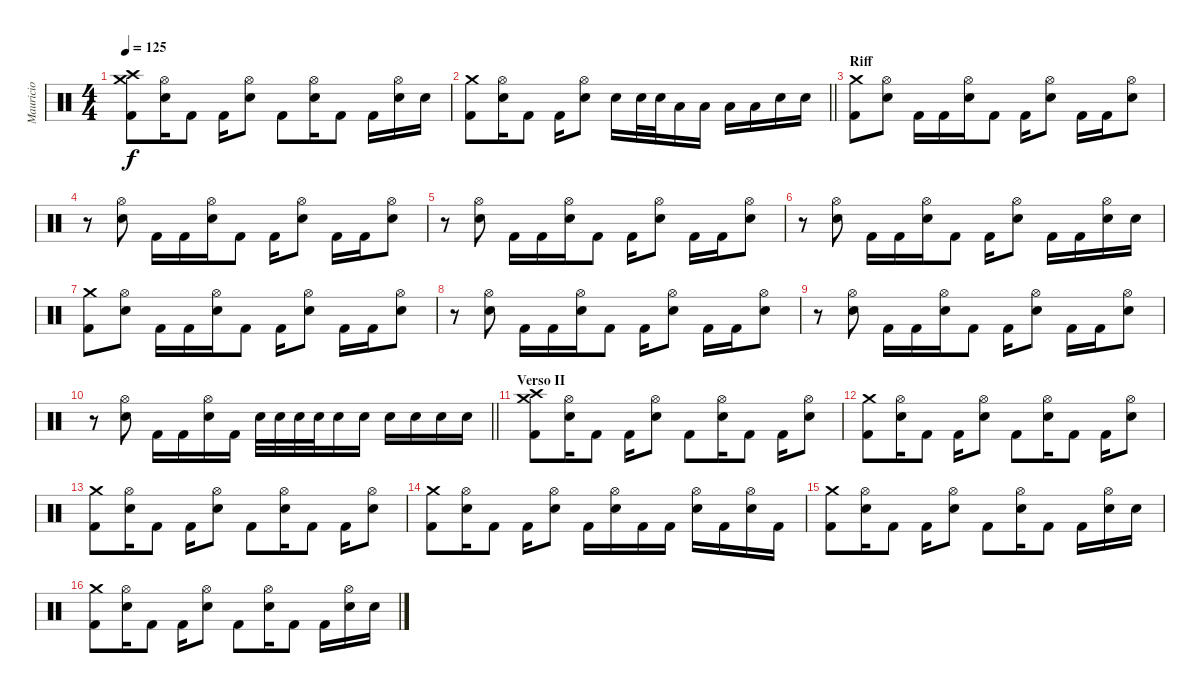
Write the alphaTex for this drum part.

\track ("Mauricio" "Mauricio") {instrument percussion}
\staff {score}
\articulation defaults
\ts (4 4)
\tempo 125
\clef neutral
\ks c
("Crash medium (hit)" "Crash high (hit)" "Kick (hit) 2").8{dy f} ("Hi-Hat (open)" "Electric Snare (hit)").16 "Kick (hit) 2".8 "Kick (hit) 2".16 ("Hi-Hat (open)" "Electric Snare (hit)").8 "Kick (hit) 2".8 ("Hi-Hat (open)" "Electric Snare (hit)").16 "Kick (hit) 2".8 "Kick (hit) 2".16 ("Hi-Hat (open)" "Electric Snare (hit)").16 "Electric Snare (hit)".16 |
\barLineRight lightlight
("Crash medium (hit)" "Kick (hit) 2").8 ("Hi-Hat (open)" "Electric Snare (hit)").16 "Kick (hit) 2".8 "Kick (hit) 2".16 ("Hi-Hat (open)" "Electric Snare (hit)").8 "Electric Snare (hit)".16 "Electric Snare (hit)".32 "Electric Snare (hit)".32 "Low Tom (hit)".16 "Low Tom (hit)".16 "Low Floor Tom (hit)".16 "Low Floor Tom (hit)".16 "Electric Snare (hit)".16 "Electric Snare (hit)".16 |
\section ("" "Riff")
("Crash medium (hit)" "Kick (hit) 2").8 ("Hi-Hat (open)" "Electric Snare (hit)").8 "Kick (hit) 2".16 "Kick (hit) 2".16 ("Hi-Hat (open)" "Electric Snare (hit)").16 "Kick (hit) 2".8 "Kick (hit) 2".16 ("Hi-Hat (open)" "Electric Snare (hit)").8 "Kick (hit) 2".16 "Kick (hit) 2".16 ("Hi-Hat (open)" "Electric Snare (hit)").8 |
r.8 ("Hi-Hat (open)" "Electric Snare (hit)").8 "Kick (hit) 2".16 "Kick (hit) 2".16 ("Hi-Hat (open)" "Electric Snare (hit)").16 "Kick (hit) 2".8 "Kick (hit) 2".16 ("Hi-Hat (open)" "Electric Snare (hit)").8 "Kick (hit) 2".16 "Kick (hit) 2".16 ("Hi-Hat (open)" "Electric Snare (hit)").8 |
r.8 ("Hi-Hat (open)" "Electric Snare (hit)").8 "Kick (hit) 2".16 "Kick (hit) 2".16 ("Hi-Hat (open)" "Electric Snare (hit)").16 "Kick (hit) 2".8 "Kick (hit) 2".16 ("Hi-Hat (open)" "Electric Snare (hit)").8 "Kick (hit) 2".16 "Kick (hit) 2".16 ("Hi-Hat (open)" "Electric Snare (hit)").8 |
r.8 ("Hi-Hat (open)" "Electric Snare (hit)").8 "Kick (hit) 2".16 "Kick (hit) 2".16 ("Hi-Hat (open)" "Electric Snare (hit)").16 "Kick (hit) 2".8 "Kick (hit) 2".16 ("Hi-Hat (open)" "Electric Snare (hit)").8 "Kick (hit) 2".16 "Kick (hit) 2".16 ("Hi-Hat (open)" "Electric Snare (hit)").16 "Electric Snare (hit)".16 |
("Crash medium (hit)" "Kick (hit) 2").8 ("Hi-Hat (open)" "Electric Snare (hit)").8 "Kick (hit) 2".16 "Kick (hit) 2".16 ("Hi-Hat (open)" "Electric Snare (hit)").16 "Kick (hit) 2".8 "Kick (hit) 2".16 ("Hi-Hat (open)" "Electric Snare (hit)").8 "Kick (hit) 2".16 "Kick (hit) 2".16 ("Hi-Hat (open)" "Electric Snare (hit)").8 |
r.8 ("Hi-Hat (open)" "Electric Snare (hit)").8 "Kick (hit) 2".16 "Kick (hit) 2".16 ("Hi-Hat (open)" "Electric Snare (hit)").16 "Kick (hit) 2".8 "Kick (hit) 2".16 ("Hi-Hat (open)" "Electric Snare (hit)").8 "Kick (hit) 2".16 "Kick (hit) 2".16 ("Hi-Hat (open)" "Electric Snare (hit)").8 |
r.8 ("Hi-Hat (open)" "Electric Snare (hit)").8 "Kick (hit) 2".16 "Kick (hit) 2".16 ("Hi-Hat (open)" "Electric Snare (hit)").16 "Kick (hit) 2".8 "Kick (hit) 2".16 ("Hi-Hat (open)" "Electric Snare (hit)").8 "Kick (hit) 2".16 "Kick (hit) 2".16 ("Hi-Hat (open)" "Electric Snare (hit)").8 |
\barLineRight lightlight
r.8 ("Hi-Hat (open)" "Electric Snare (hit)").8 "Kick (hit) 2".16 "Kick (hit) 2".16 ("Hi-Hat (open)" "Electric Snare (hit)").16 "Kick (hit) 2".16 "Electric Snare (hit)".32 "Electric Snare (hit)".32 "Electric Snare (hit)".32 "Electric Snare (hit)".32 "Electric Snare (hit)".16 "Electric Snare (hit)".16 "Electric Snare (hit)".16 "Electric Snare (hit)".16 "Electric Snare (hit)".16 "Electric Snare (hit)".16 |
\section ("" "Verso II")
("Crash medium (hit)" "Crash high (hit)" "Kick (hit) 2").8 ("Hi-Hat (open)" "Electric Snare (hit)").16 "Kick (hit) 2".8 "Kick (hit) 2".16 ("Hi-Hat (open)" "Electric Snare (hit)").8 "Kick (hit) 2".8 ("Hi-Hat (open)" "Electric Snare (hit)").16 "Kick (hit) 2".8 "Kick (hit) 2".16 ("Hi-Hat (open)" "Electric Snare (hit)").8 |
("Crash medium (hit)" "Kick (hit) 2").8 ("Hi-Hat (open)" "Electric Snare (hit)").16 "Kick (hit) 2".8 "Kick (hit) 2".16 ("Hi-Hat (open)" "Electric Snare (hit)").8 "Kick (hit) 2".8 ("Hi-Hat (open)" "Electric Snare (hit)").16 "Kick (hit) 2".8 "Kick (hit) 2".16 ("Hi-Hat (open)" "Electric Snare (hit)").8 |
("Crash medium (hit)" "Kick (hit) 2").8 ("Hi-Hat (open)" "Electric Snare (hit)").16 "Kick (hit) 2".8 "Kick (hit) 2".16 ("Hi-Hat (open)" "Electric Snare (hit)").8 "Kick (hit) 2".8 ("Hi-Hat (open)" "Electric Snare (hit)").16 "Kick (hit) 2".8 "Kick (hit) 2".16 ("Hi-Hat (open)" "Electric Snare (hit)").8 |
("Crash medium (hit)" "Kick (hit) 2").8 ("Hi-Hat (open)" "Electric Snare (hit)").16 "Kick (hit) 2".8 "Kick (hit) 2".16 ("Hi-Hat (open)" "Electric Snare (hit)").8 "Kick (hit) 2".16 ("Hi-Hat (open)" "Electric Snare (hit)").16 "Kick (hit) 2".16 "Kick (hit) 2".16 ("Hi-Hat (open)" "Electric Snare (hit)").16 "Kick (hit) 2".16 ("Hi-Hat (open)" "Electric Snare (hit)").16 "Kick (hit) 2".16 |
("Crash medium (hit)" "Kick (hit) 2").8 ("Hi-Hat (open)" "Electric Snare (hit)").16 "Kick (hit) 2".8 "Kick (hit) 2".16 ("Hi-Hat (open)" "Electric Snare (hit)").8 "Kick (hit) 2".8 ("Hi-Hat (open)" "Electric Snare (hit)").16 "Kick (hit) 2".8 "Kick (hit) 2".16 ("Hi-Hat (open)" "Electric Snare (hit)").16 "Electric Snare (hit)".16 |
("Crash medium (hit)" "Kick (hit) 2").8 ("Hi-Hat (open)" "Electric Snare (hit)").16 "Kick (hit) 2".8 "Kick (hit) 2".16 ("Hi-Hat (open)" "Electric Snare (hit)").8 "Kick (hit) 2".8 ("Hi-Hat (open)" "Electric Snare (hit)").16 "Kick (hit) 2".8 "Kick (hit) 2".16 ("Hi-Hat (open)" "Electric Snare (hit)").16 "Electric Snare (hit)".16
